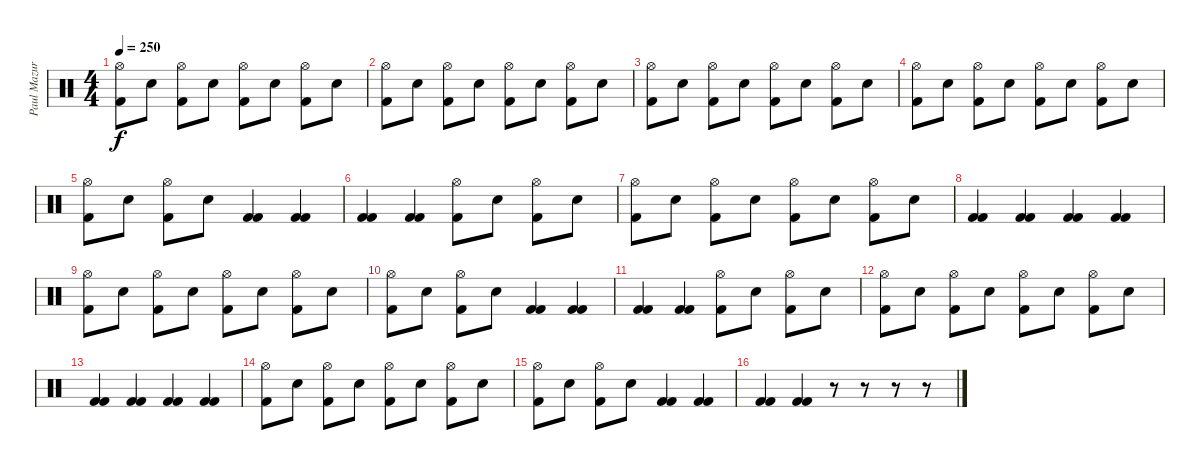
\track ("Paul Mazurkiewicz" "Paul Mazur") {instrument percussion}
\staff {score}
\articulation defaults
\ts (4 4)
\tempo 250
\clef neutral
\ks c
("Hi-Hat (open)" "Kick (hit) 2").8{dy f} "Electric Snare (hit)".8 ("Hi-Hat (open)" "Kick (hit) 2").8 "Electric Snare (hit)".8 ("Hi-Hat (open)" "Kick (hit) 2").8 "Electric Snare (hit)".8 ("Hi-Hat (open)" "Kick (hit) 2").8 "Electric Snare (hit)".8 |
("Hi-Hat (open)" "Kick (hit) 2").8 "Electric Snare (hit)".8 ("Hi-Hat (open)" "Kick (hit) 2").8 "Electric Snare (hit)".8 ("Hi-Hat (open)" "Kick (hit) 2").8 "Electric Snare (hit)".8 ("Hi-Hat (open)" "Kick (hit) 2").8 "Electric Snare (hit)".8 |
("Hi-Hat (open)" "Kick (hit) 2").8 "Electric Snare (hit)".8 ("Hi-Hat (open)" "Kick (hit) 2").8 "Electric Snare (hit)".8 ("Hi-Hat (open)" "Kick (hit) 2").8 "Electric Snare (hit)".8 ("Hi-Hat (open)" "Kick (hit) 2").8 "Electric Snare (hit)".8 |
("Hi-Hat (open)" "Kick (hit) 2").8 "Electric Snare (hit)".8 ("Hi-Hat (open)" "Kick (hit) 2").8 "Electric Snare (hit)".8 ("Hi-Hat (open)" "Kick (hit) 2").8 "Electric Snare (hit)".8 ("Hi-Hat (open)" "Kick (hit) 2").8 "Electric Snare (hit)".8 |
("Hi-Hat (open)" "Kick (hit) 2").8 "Electric Snare (hit)".8 ("Hi-Hat (open)" "Kick (hit) 2").8 "Electric Snare (hit)".8 ("Kick (hit) 2" "Kick (hit) 2").4 ("Kick (hit) 2" "Kick (hit) 2").4 |
("Kick (hit) 2" "Kick (hit) 2").4 ("Kick (hit) 2" "Kick (hit) 2").4 ("Hi-Hat (open)" "Kick (hit) 2").8 "Electric Snare (hit)".8 ("Hi-Hat (open)" "Kick (hit) 2").8 "Electric Snare (hit)".8 |
("Hi-Hat (open)" "Kick (hit) 2").8 "Electric Snare (hit)".8 ("Hi-Hat (open)" "Kick (hit) 2").8 "Electric Snare (hit)".8 ("Hi-Hat (open)" "Kick (hit) 2").8 "Electric Snare (hit)".8 ("Hi-Hat (open)" "Kick (hit) 2").8 "Electric Snare (hit)".8 |
("Kick (hit) 2" "Kick (hit) 2").4 ("Kick (hit) 2" "Kick (hit) 2").4 ("Kick (hit) 2" "Kick (hit) 2").4 ("Kick (hit) 2" "Kick (hit) 2").4 |
("Hi-Hat (open)" "Kick (hit) 2").8 "Electric Snare (hit)".8 ("Hi-Hat (open)" "Kick (hit) 2").8 "Electric Snare (hit)".8 ("Hi-Hat (open)" "Kick (hit) 2").8 "Electric Snare (hit)".8 ("Hi-Hat (open)" "Kick (hit) 2").8 "Electric Snare (hit)".8 |
("Hi-Hat (open)" "Kick (hit) 2").8 "Electric Snare (hit)".8 ("Hi-Hat (open)" "Kick (hit) 2").8 "Electric Snare (hit)".8 ("Kick (hit) 2" "Kick (hit) 2").4 ("Kick (hit) 2" "Kick (hit) 2").4 |
("Kick (hit) 2" "Kick (hit) 2").4 ("Kick (hit) 2" "Kick (hit) 2").4 ("Hi-Hat (open)" "Kick (hit) 2").8 "Electric Snare (hit)".8 ("Hi-Hat (open)" "Kick (hit) 2").8 "Electric Snare (hit)".8 |
("Hi-Hat (open)" "Kick (hit) 2").8 "Electric Snare (hit)".8 ("Hi-Hat (open)" "Kick (hit) 2").8 "Electric Snare (hit)".8 ("Hi-Hat (open)" "Kick (hit) 2").8 "Electric Snare (hit)".8 ("Hi-Hat (open)" "Kick (hit) 2").8 "Electric Snare (hit)".8 |
("Kick (hit) 2" "Kick (hit) 2").4 ("Kick (hit) 2" "Kick (hit) 2").4 ("Kick (hit) 2" "Kick (hit) 2").4 ("Kick (hit) 2" "Kick (hit) 2").4 |
("Hi-Hat (open)" "Kick (hit) 2").8 "Electric Snare (hit)".8 ("Hi-Hat (open)" "Kick (hit) 2").8 "Electric Snare (hit)".8 ("Hi-Hat (open)" "Kick (hit) 2").8 "Electric Snare (hit)".8 ("Hi-Hat (open)" "Kick (hit) 2").8 "Electric Snare (hit)".8 |
("Hi-Hat (open)" "Kick (hit) 2").8 "Electric Snare (hit)".8 ("Hi-Hat (open)" "Kick (hit) 2").8 "Electric Snare (hit)".8 ("Kick (hit) 2" "Kick (hit) 2").4 ("Kick (hit) 2" "Kick (hit) 2").4 |
("Kick (hit) 2" "Kick (hit) 2").4 ("Kick (hit) 2" "Kick (hit) 2").4 r.8 r.8 r.8 r.8
